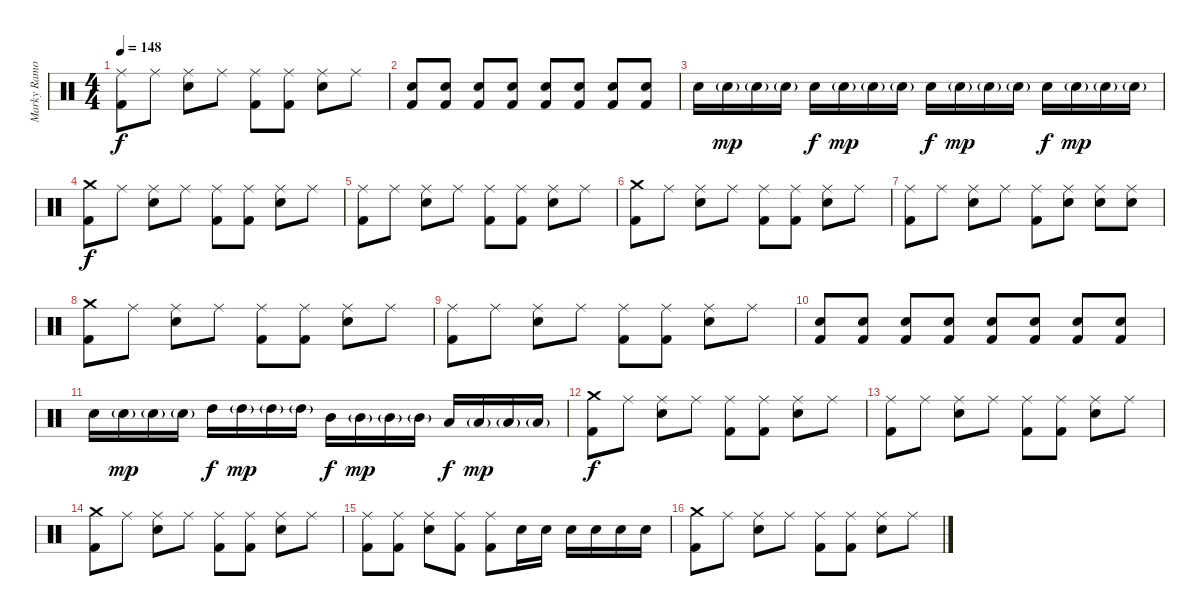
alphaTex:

\track ("Marky Ramone - Drums" "Marky Ramo") {instrument percussion}
\staff {score}
\articulation defaults
\ts (4 4)
\tempo 148
\clef neutral
\ks c
("Ride (middle)" "Kick (hit) 2").8{dy f} "Ride (middle)".8 ("Ride (middle)" "Electric Snare (hit)").8 "Ride (middle)".8 ("Ride (middle)" "Kick (hit) 2").8 ("Ride (middle)" "Kick (hit) 2").8 ("Ride (middle)" "Electric Snare (hit)").8 "Ride (middle)".8 |
("Electric Snare (hit)" "Kick (hit) 2").8{bd 240} ("Electric Snare (hit)" "Kick (hit) 2").8{bd 240} ("Electric Snare (hit)" "Kick (hit) 2").8{bd 240} ("Electric Snare (hit)" "Kick (hit) 2").8{bd 240} ("Electric Snare (hit)" "Kick (hit) 2").8{bd 240} ("Electric Snare (hit)" "Kick (hit) 2").8{bd 240} ("Electric Snare (hit)" "Kick (hit) 2").8{bd 240} ("Electric Snare (hit)" "Kick (hit) 2").8{bd 240} |
"Electric Snare (hit)".16 "Electric Snare (hit)"{g}.16{dy mp} "Electric Snare (hit)"{g}.16 "Electric Snare (hit)"{g}.16 "Electric Snare (hit)".16{dy f} "Electric Snare (hit)"{g}.16{dy mp} "Electric Snare (hit)"{g}.16 "Electric Snare (hit)"{g}.16 "Electric Snare (hit)".16{dy f} "Electric Snare (hit)"{g}.16{dy mp} "Electric Snare (hit)"{g}.16 "Electric Snare (hit)"{g}.16 "Electric Snare (hit)".16{dy f} "Electric Snare (hit)"{g}.16{dy mp} "Electric Snare (hit)"{g}.16 "Electric Snare (hit)"{g}.16 |
("Crash medium (hit)" "Kick (hit) 2").8{dy f} "Ride (middle)".8 ("Ride (middle)" "Electric Snare (hit)").8 "Ride (middle)".8 ("Ride (middle)" "Kick (hit) 2").8 ("Ride (middle)" "Kick (hit) 2").8 ("Ride (middle)" "Electric Snare (hit)").8 "Ride (middle)".8 |
("Ride (middle)" "Kick (hit) 2").8 "Ride (middle)".8 ("Ride (middle)" "Electric Snare (hit)").8 "Ride (middle)".8 ("Ride (middle)" "Kick (hit) 2").8 ("Ride (middle)" "Kick (hit) 2").8 ("Ride (middle)" "Electric Snare (hit)").8 "Ride (middle)".8 |
("Crash medium (hit)" "Kick (hit) 2").8 "Ride (middle)".8 ("Ride (middle)" "Electric Snare (hit)").8 "Ride (middle)".8 ("Ride (middle)" "Kick (hit) 2").8 ("Ride (middle)" "Kick (hit) 2").8 ("Ride (middle)" "Electric Snare (hit)").8 "Ride (middle)".8 |
("Ride (middle)" "Kick (hit) 2").8 "Ride (middle)".8 ("Ride (middle)" "Electric Snare (hit)").8 "Ride (middle)".8 ("Ride (middle)" "Kick (hit) 2").8 ("Ride (middle)" "Electric Snare (hit)").8 ("Ride (middle)" "Electric Snare (hit)").8 ("Ride (middle)" "Electric Snare (hit)").8 |
("Crash medium (hit)" "Kick (hit) 2").8 "Ride (middle)".8 ("Ride (middle)" "Electric Snare (hit)").8 "Ride (middle)".8 ("Ride (middle)" "Kick (hit) 2").8 ("Ride (middle)" "Kick (hit) 2").8 ("Ride (middle)" "Electric Snare (hit)").8 "Ride (middle)".8 |
("Ride (middle)" "Kick (hit) 2").8 "Ride (middle)".8 ("Ride (middle)" "Electric Snare (hit)").8 "Ride (middle)".8 ("Ride (middle)" "Kick (hit) 2").8 ("Ride (middle)" "Kick (hit) 2").8 ("Ride (middle)" "Electric Snare (hit)").8 "Ride (middle)".8 |
("Electric Snare (hit)" "Kick (hit) 2").8 ("Electric Snare (hit)" "Kick (hit) 2").8 ("Electric Snare (hit)" "Kick (hit) 2").8 ("Electric Snare (hit)" "Kick (hit) 2").8 ("Electric Snare (hit)" "Kick (hit) 2").8 ("Electric Snare (hit)" "Kick (hit) 2").8 ("Electric Snare (hit)" "Kick (hit) 2").8 ("Electric Snare (hit)" "Kick (hit) 2").8 |
"Electric Snare (hit)".16 "Electric Snare (hit)"{g}.16{dy mp} "Electric Snare (hit)"{g}.16 "Electric Snare (hit)"{g}.16 "High Tom (hit)".16{dy f} "High Tom (hit)"{g}.16{dy mp} "High Tom (hit)"{g}.16 "High Tom (hit)"{g}.16 "Mid Tom (hit)".16{dy f} "Mid Tom (hit)"{g}.16{dy mp} "Mid Tom (hit)"{g}.16 "Mid Tom (hit)"{g}.16 "Low Tom (hit)".16{dy f} "Low Tom (hit)"{g}.16{dy mp} "Low Tom (hit)"{g}.16 "Low Tom (hit)"{g}.16 |
("Crash medium (hit)" "Kick (hit) 2").8{dy f} "Ride (middle)".8 ("Ride (middle)" "Electric Snare (hit)").8 "Ride (middle)".8 ("Ride (middle)" "Kick (hit) 2").8 ("Ride (middle)" "Kick (hit) 2").8 ("Ride (middle)" "Electric Snare (hit)").8 "Ride (middle)".8 |
("Ride (middle)" "Kick (hit) 2").8 "Ride (middle)".8 ("Ride (middle)" "Electric Snare (hit)").8 "Ride (middle)".8 ("Ride (middle)" "Kick (hit) 2").8 ("Ride (middle)" "Kick (hit) 2").8 ("Ride (middle)" "Electric Snare (hit)").8 "Ride (middle)".8 |
("Crash medium (hit)" "Kick (hit) 2").8 "Ride (middle)".8 ("Ride (middle)" "Electric Snare (hit)").8 "Ride (middle)".8 ("Ride (middle)" "Kick (hit) 2").8 ("Ride (middle)" "Kick (hit) 2").8 ("Ride (middle)" "Electric Snare (hit)").8 "Ride (middle)".8 |
("Ride (middle)" "Kick (hit) 2").8 ("Ride (middle)" "Kick (hit) 2").8 ("Ride (middle)" "Electric Snare (hit)").8 ("Ride (middle)" "Kick (hit) 2").8 ("Ride (middle)" "Kick (hit) 2").8 "Electric Snare (hit)".16 "Electric Snare (hit)".16 "Electric Snare (hit)".16 "Electric Snare (hit)".16 "Electric Snare (hit)".16 "Electric Snare (hit)".16 |
("Crash medium (hit)" "Kick (hit) 2").8 "Ride (middle)".8 ("Ride (middle)" "Electric Snare (hit)").8 "Ride (middle)".8 ("Ride (middle)" "Kick (hit) 2").8 ("Ride (middle)" "Kick (hit) 2").8 ("Ride (middle)" "Electric Snare (hit)").8 "Ride (middle)".8
